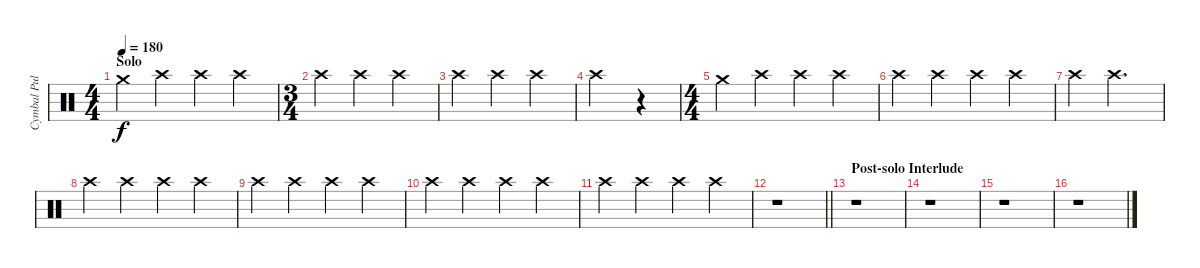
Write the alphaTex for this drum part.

\track ("Cymbal Pulse" "Cymbal Pul") {instrument percussion}
\staff {score}
\articulation defaults
\ts (4 4)
\section ("" "Solo")
\tempo 180
\clef neutral
\ks c "Crash medium (hit)".4{dy f} "Crash high (hit)".4 "Crash high (hit)".4 "Crash high (hit)".4
|
\ts (3 4)
"Crash high (hit)".4 "Crash high (hit)".4 "Crash high (hit)".4 |
"Crash high (hit)".4 "Crash high (hit)".4 "Crash high (hit)".4 |
"Crash high (hit)".2 r.4 |
\ts (4 4)
"Crash medium (hit)".4 "Crash high (hit)".4 "Crash high (hit)".4 "Crash high (hit)".4 |
"Crash high (hit)".4 "Crash high (hit)".4 "Crash high (hit)".4 "Crash high (hit)".4 |
"Crash high (hit)".4 "Crash high (hit)".2{d} |
"Crash high (hit)".4 "Crash high (hit)".4 "Crash high (hit)".4 "Crash high (hit)".4 |
"Crash high (hit)".4 "Crash high (hit)".4 "Crash high (hit)".4 "Crash high (hit)".4 |
"Crash high (hit)".4 "Crash high (hit)".4 "Crash high (hit)".4 "Crash high (hit)".4 |
"Crash high (hit)".4 "Crash high (hit)".4 "Crash high (hit)".4 "Crash high (hit)".4 |
\barLineRight lightlight
r.1 |
\section ("" "Post-solo Interlude")
r.1 |
r.1 |
r.1 |
r.1
